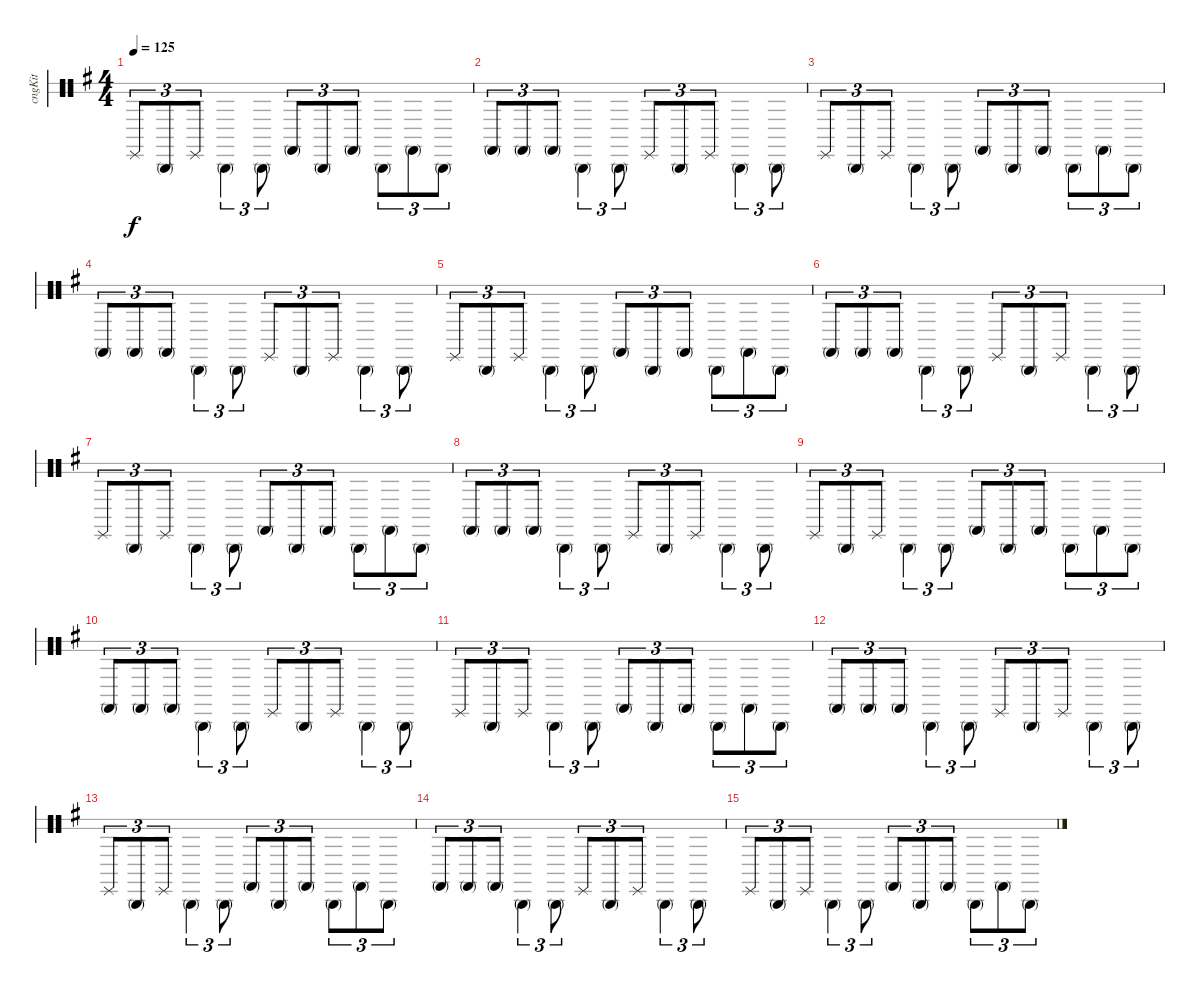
\defaultSystemsLayout 4
\bracketExtendMode groupsimilarinstruments
\otherSystemsTrackNameOrientation horizontal
\track ("Congas" "cngKit") {instrument percussion}
\staff {score 2}
\articulation defaults
\ts (4 4)
\tempo 125
\clef neutral
\scale
0.333333
\ks g "Conga low (slap)"{acc forcenatural}.8{tu (3 2) dy f beam Up} "Conga high (mute)"{acc forcenatural}.8{tu (3 2) beam Up} "Conga low (slap)"{acc forcenatural}.8{tu (3 2) beam Up} "Conga high (mute)"{acc forcenatural}.4{tu (3 2) beam Down} "Conga high (mute)"{acc forcenatural}.8{tu (3 2) beam Down} "Conga low (mute)"{acc forcenatural}.8{tu (3 2) beam Up} "Conga high (mute)"{acc forcenatural}.8{tu (3 2) beam Up} "Conga low (mute)"{acc forcenatural}.8{tu (3 2) beam Up} "Conga high (mute)"{acc forcenatural}.8{tu (3 2) beam Down} "Conga low (mute)"{acc forcenatural}.8{tu (3 2) beam Down} "Conga high (mute)"{acc forcenatural}.8{tu (3 2) beam Down}
|
\scale
0.333333 "Conga low (mute)"{acc forcenatural}.8{tu (3 2) beam Up} "Conga low (mute)"{acc forcenatural}.8{tu (3 2) beam Up} "Conga low (mute)"{acc forcenatural}.8{tu (3 2) beam Up} "Conga high (mute)"{acc forcenatural}.4{tu (3 2) beam Down} "Conga high (mute)"{acc forcenatural}.8{tu (3 2) beam Down} "Conga low (slap)"{acc forcenatural}.8{tu (3 2) beam Up} "Conga high (mute)"{acc forcenatural}.8{tu (3 2) beam Up} "Conga low (slap)"{acc forcenatural}.8{tu (3 2) beam Up} "Conga high (mute)"{acc forcenatural}.4{tu (3 2) beam Down} "Conga high (mute)"{acc forcenatural}.8{tu (3 2) beam Down} |
\scale
0.333333 "Conga low (slap)"{acc forcenatural}.8{tu (3 2) beam Up} "Conga high (mute)"{acc forcenatural}.8{tu (3 2) beam Up} "Conga low (slap)"{acc forcenatural}.8{tu (3 2) beam Up} "Conga high (mute)"{acc forcenatural}.4{tu (3 2) beam Down} "Conga high (mute)"{acc forcenatural}.8{tu (3 2) beam Down} "Conga low (mute)"{acc forcenatural}.8{tu (3 2) beam Up} "Conga high (mute)"{acc forcenatural}.8{tu (3 2) beam Up} "Conga low (mute)"{acc forcenatural}.8{tu (3 2) beam Up} "Conga high (mute)"{acc forcenatural}.8{tu (3 2) beam Down} "Conga low (mute)"{acc forcenatural}.8{tu (3 2) beam Down} "Conga high (mute)"{acc forcenatural}.8{tu (3 2) beam Down} |
\scale
0.333333 "Conga low (mute)"{acc forcenatural}.8{tu (3 2) beam Up} "Conga low (mute)"{acc forcenatural}.8{tu (3 2) beam Up} "Conga low (mute)"{acc forcenatural}.8{tu (3 2) beam Up} "Conga high (mute)"{acc forcenatural}.4{tu (3 2) beam Down} "Conga high (mute)"{acc forcenatural}.8{tu (3 2) beam Down} "Conga low (slap)"{acc forcenatural}.8{tu (3 2) beam Up} "Conga high (mute)"{acc forcenatural}.8{tu (3 2) beam Up} "Conga low (slap)"{acc forcenatural}.8{tu (3 2) beam Up} "Conga high (mute)"{acc forcenatural}.4{tu (3 2) beam Down} "Conga high (mute)"{acc forcenatural}.8{tu (3 2) beam Down} |
\scale
0.333333 "Conga low (slap)"{acc forcenatural}.8{tu (3 2) beam Up} "Conga high (mute)"{acc forcenatural}.8{tu (3 2) beam Up} "Conga low (slap)"{acc forcenatural}.8{tu (3 2) beam Up} "Conga high (mute)"{acc forcenatural}.4{tu (3 2) beam Down} "Conga high (mute)"{acc forcenatural}.8{tu (3 2) beam Down} "Conga low (mute)"{acc forcenatural}.8{tu (3 2) beam Up} "Conga high (mute)"{acc forcenatural}.8{tu (3 2) beam Up} "Conga low (mute)"{acc forcenatural}.8{tu (3 2) beam Up} "Conga high (mute)"{acc forcenatural}.8{tu (3 2) beam Down} "Conga low (mute)"{acc forcenatural}.8{tu (3 2) beam Down} "Conga high (mute)"{acc forcenatural}.8{tu (3 2) beam Down} |
\scale
0.333333 "Conga low (mute)"{acc forcenatural}.8{tu (3 2) beam Up} "Conga low (mute)"{acc forcenatural}.8{tu (3 2) beam Up} "Conga low (mute)"{acc forcenatural}.8{tu (3 2) beam Up} "Conga high (mute)"{acc forcenatural}.4{tu (3 2) beam Down} "Conga high (mute)"{acc forcenatural}.8{tu (3 2) beam Down} "Conga low (slap)"{acc forcenatural}.8{tu (3 2) beam Up} "Conga high (mute)"{acc forcenatural}.8{tu (3 2) beam Up} "Conga low (slap)"{acc forcenatural}.8{tu (3 2) beam Up} "Conga high (mute)"{acc forcenatural}.4{tu (3 2) beam Down} "Conga high (mute)"{acc forcenatural}.8{tu (3 2) beam Down} |
\scale
0.333333 "Conga low (slap)"{acc forcenatural}.8{tu (3 2) beam Up} "Conga high (mute)"{acc forcenatural}.8{tu (3 2) beam Up} "Conga low (slap)"{acc forcenatural}.8{tu (3 2) beam Up} "Conga high (mute)"{acc forcenatural}.4{tu (3 2) beam Down} "Conga high (mute)"{acc forcenatural}.8{tu (3 2) beam Down} "Conga low (mute)"{acc forcenatural}.8{tu (3 2) beam Up} "Conga high (mute)"{acc forcenatural}.8{tu (3 2) beam Up} "Conga low (mute)"{acc forcenatural}.8{tu (3 2) beam Up} "Conga high (mute)"{acc forcenatural}.8{tu (3 2) beam Down} "Conga low (mute)"{acc forcenatural}.8{tu (3 2) beam Down} "Conga high (mute)"{acc forcenatural}.8{tu (3 2) beam Down} |
\scale
0.333333 "Conga low (mute)"{acc forcenatural}.8{tu (3 2) beam Up} "Conga low (mute)"{acc forcenatural}.8{tu (3 2) beam Up} "Conga low (mute)"{acc forcenatural}.8{tu (3 2) beam Up} "Conga high (mute)"{acc forcenatural}.4{tu (3 2) beam Down} "Conga high (mute)"{acc forcenatural}.8{tu (3 2) beam Down} "Conga low (slap)"{acc forcenatural}.8{tu (3 2) beam Up} "Conga high (mute)"{acc forcenatural}.8{tu (3 2) beam Up} "Conga low (slap)"{acc forcenatural}.8{tu (3 2) beam Up} "Conga high (mute)"{acc forcenatural}.4{tu (3 2) beam Down} "Conga high (mute)"{acc forcenatural}.8{tu (3 2) beam Down} |
\scale
0.333333 "Conga low (slap)"{acc forcenatural}.8{tu (3 2) beam Up} "Conga high (mute)"{acc forcenatural}.8{tu (3 2) beam Up} "Conga low (slap)"{acc forcenatural}.8{tu (3 2) beam Up} "Conga high (mute)"{acc forcenatural}.4{tu (3 2) beam Down} "Conga high (mute)"{acc forcenatural}.8{tu (3 2) beam Down} "Conga low (mute)"{acc forcenatural}.8{tu (3 2) beam Up} "Conga high (mute)"{acc forcenatural}.8{tu (3 2) beam Up} "Conga low (mute)"{acc forcenatural}.8{tu (3 2) beam Up} "Conga high (mute)"{acc forcenatural}.8{tu (3 2) beam Down} "Conga low (mute)"{acc forcenatural}.8{tu (3 2) beam Down} "Conga high (mute)"{acc forcenatural}.8{tu (3 2) beam Down} |
\scale
0.333333 "Conga low (mute)"{acc forcenatural}.8{tu (3 2) beam Up} "Conga low (mute)"{acc forcenatural}.8{tu (3 2) beam Up} "Conga low (mute)"{acc forcenatural}.8{tu (3 2) beam Up} "Conga high (mute)"{acc forcenatural}.4{tu (3 2) beam Down} "Conga high (mute)"{acc forcenatural}.8{tu (3 2) beam Down} "Conga low (slap)"{acc forcenatural}.8{tu (3 2) beam Up} "Conga high (mute)"{acc forcenatural}.8{tu (3 2) beam Up} "Conga low (slap)"{acc forcenatural}.8{tu (3 2) beam Up} "Conga high (mute)"{acc forcenatural}.4{tu (3 2) beam Down} "Conga high (mute)"{acc forcenatural}.8{tu (3 2) beam Down} |
\scale
0.333333 "Conga low (slap)"{acc forcenatural}.8{tu (3 2) beam Up} "Conga high (mute)"{acc forcenatural}.8{tu (3 2) beam Up} "Conga low (slap)"{acc forcenatural}.8{tu (3 2) beam Up} "Conga high (mute)"{acc forcenatural}.4{tu (3 2) beam Down} "Conga high (mute)"{acc forcenatural}.8{tu (3 2) beam Down} "Conga low (mute)"{acc forcenatural}.8{tu (3 2) beam Up} "Conga high (mute)"{acc forcenatural}.8{tu (3 2) beam Up} "Conga low (mute)"{acc forcenatural}.8{tu (3 2) beam Up} "Conga high (mute)"{acc forcenatural}.8{tu (3 2) beam Down} "Conga low (mute)"{acc forcenatural}.8{tu (3 2) beam Down} "Conga high (mute)"{acc forcenatural}.8{tu (3 2) beam Down} |
\scale
0.333333 "Conga low (mute)"{acc forcenatural}.8{tu (3 2) beam Up} "Conga low (mute)"{acc forcenatural}.8{tu (3 2) beam Up} "Conga low (mute)"{acc forcenatural}.8{tu (3 2) beam Up} "Conga high (mute)"{acc forcenatural}.4{tu (3 2) beam Down} "Conga high (mute)"{acc forcenatural}.8{tu (3 2) beam Down} "Conga low (slap)"{acc forcenatural}.8{tu (3 2) beam Up} "Conga high (mute)"{acc forcenatural}.8{tu (3 2) beam Up} "Conga low (slap)"{acc forcenatural}.8{tu (3 2) beam Up} "Conga high (mute)"{acc forcenatural}.4{tu (3 2) beam Down} "Conga high (mute)"{acc forcenatural}.8{tu (3 2) beam Down} |
\scale
0.333333 "Conga low (slap)"{acc forcenatural}.8{tu (3 2) beam Up} "Conga high (mute)"{acc forcenatural}.8{tu (3 2) beam Up} "Conga low (slap)"{acc forcenatural}.8{tu (3 2) beam Up} "Conga high (mute)"{acc forcenatural}.4{tu (3 2) beam Down} "Conga high (mute)"{acc forcenatural}.8{tu (3 2) beam Down} "Conga low (mute)"{acc forcenatural}.8{tu (3 2) beam Up} "Conga high (mute)"{acc forcenatural}.8{tu (3 2) beam Up} "Conga low (mute)"{acc forcenatural}.8{tu (3 2) beam Up} "Conga high (mute)"{acc forcenatural}.8{tu (3 2) beam Down} "Conga low (mute)"{acc forcenatural}.8{tu (3 2) beam Down} "Conga high (mute)"{acc forcenatural}.8{tu (3 2) beam Down} |
\scale
0.333333 "Conga low (mute)"{acc forcenatural}.8{tu (3 2) beam Up} "Conga low (mute)"{acc forcenatural}.8{tu (3 2) beam Up} "Conga low (mute)"{acc forcenatural}.8{tu (3 2) beam Up} "Conga high (mute)"{acc forcenatural}.4{tu (3 2) beam Down} "Conga high (mute)"{acc forcenatural}.8{tu (3 2) beam Down} "Conga low (slap)"{acc forcenatural}.8{tu (3 2) beam Up} "Conga high (mute)"{acc forcenatural}.8{tu (3 2) beam Up} "Conga low (slap)"{acc forcenatural}.8{tu (3 2) beam Up} "Conga high (mute)"{acc forcenatural}.4{tu (3 2) beam Down} "Conga high (mute)"{acc forcenatural}.8{tu (3 2) beam Down} |
\scale
0.333333 "Conga low (slap)"{acc forcenatural}.8{tu (3 2) beam Up} "Conga high (mute)"{acc forcenatural}.8{tu (3 2) beam Up} "Conga low (slap)"{acc forcenatural}.8{tu (3 2) beam Up} "Conga high (mute)"{acc forcenatural}.4{tu (3 2) beam Down} "Conga high (mute)"{acc forcenatural}.8{tu (3 2) beam Down} "Conga low (mute)"{acc forcenatural}.8{tu (3 2) beam Up} "Conga high (mute)"{acc forcenatural}.8{tu (3 2) beam Up} "Conga low (mute)"{acc forcenatural}.8{tu (3 2) beam Up} "Conga high (mute)"{acc forcenatural}.8{tu (3 2) beam Down} "Conga low (mute)"{acc forcenatural}.8{tu (3 2) beam Down} "Conga high (mute)"{acc forcenatural}.8{tu (3 2) beam Down} |
\scale
0.333333
